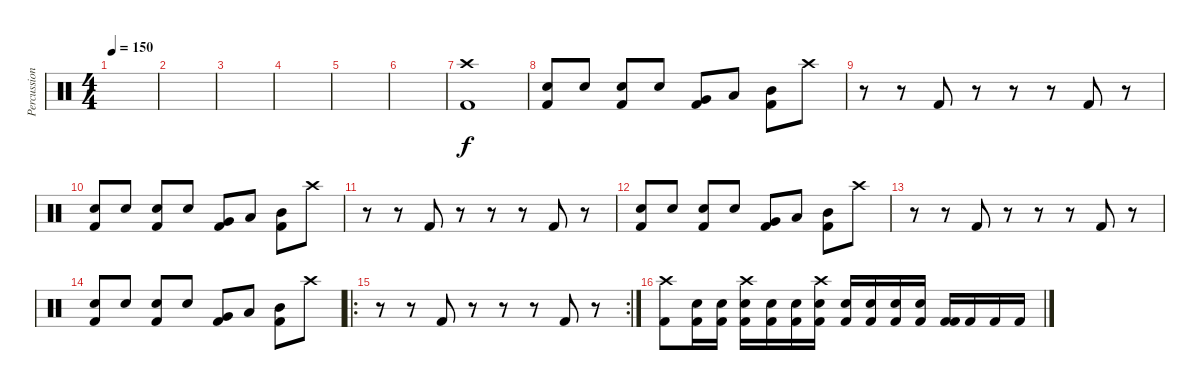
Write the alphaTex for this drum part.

\track ("Percussion" "Percussion") {instrument percussion}
\staff {score}
\articulation defaults
\ts (4 4)
\tempo 150
\clef neutral
\ks c
|
|
|
|
|
|
("Crash high (hit)" "Kick (hit) 2").1 |
("Kick (hit) 2" "Snare (hit) 2").8 "Snare (hit) 2".8 ("Kick (hit) 2" "Snare (hit) 2").8 "Snare (hit) 2".8 ("Kick (hit) 2" "Very Low Tom (hit)").8 "Low Tom (hit)".8 ("Kick (hit) 2" "Mid Tom (hit)").8 "Crash high (hit)".8 |
r.8 r.8 "Kick (hit) 2".8 r.8 r.8 r.8 "Kick (hit) 2".8 r.8 |
("Kick (hit) 2" "Snare (hit) 2").8 "Snare (hit) 2".8 ("Kick (hit) 2" "Snare (hit) 2").8 "Snare (hit) 2".8 ("Kick (hit) 2" "Very Low Tom (hit)").8 "Low Tom (hit)".8 ("Kick (hit) 2" "Mid Tom (hit)").8 "Crash high (hit)".8 |
r.8 r.8 "Kick (hit) 2".8 r.8 r.8 r.8 "Kick (hit) 2".8 r.8 |
("Kick (hit) 2" "Snare (hit) 2").8 "Snare (hit) 2".8 ("Kick (hit) 2" "Snare (hit) 2").8 "Snare (hit) 2".8 ("Kick (hit) 2" "Very Low Tom (hit)").8 "Low Tom (hit)".8 ("Kick (hit) 2" "Mid Tom (hit)").8 "Crash high (hit)".8 |
r.8 r.8 "Kick (hit) 2".8 r.8 r.8 r.8 "Kick (hit) 2".8 r.8 |
("Kick (hit) 2" "Snare (hit) 2").8 "Snare (hit) 2".8 ("Kick (hit) 2" "Snare (hit) 2").8 "Snare (hit) 2".8 ("Kick (hit) 2" "Very Low Tom (hit)").8 "Low Tom (hit)".8 ("Kick (hit) 2" "Mid Tom (hit)").8 "Crash high (hit)".8 |
\ro
\rc 2
r.8 r.8 "Kick (hit) 2".8 r.8 r.8 r.8 "Kick (hit) 2".8 r.8 |
("Kick (hit) 2" "Crash high (hit)").8 ("Kick (hit) 2" "Snare (hit) 2").16 ("Snare (hit) 2" "Kick (hit) 2").16 ("Kick (hit) 2" "Snare (hit) 2" "Crash high (hit)").16 ("Snare (hit) 2" "Kick (hit) 2").16 ("Kick (hit) 2" "Snare (hit) 2").16 ("Snare (hit) 2" "Kick (hit) 2" "Crash high (hit)").16 ("Kick (hit) 2" "Snare (hit) 2").16 ("Kick (hit) 2" "Snare (hit) 2").16 ("Kick (hit) 2" "Snare (hit) 2").16 ("Kick (hit) 2" "Snare (hit) 2").16 ("Kick (hit) 2" "Kick (hit) 2").16 "Kick (hit) 2".16 "Kick (hit) 2".16 "Kick (hit) 2".16
